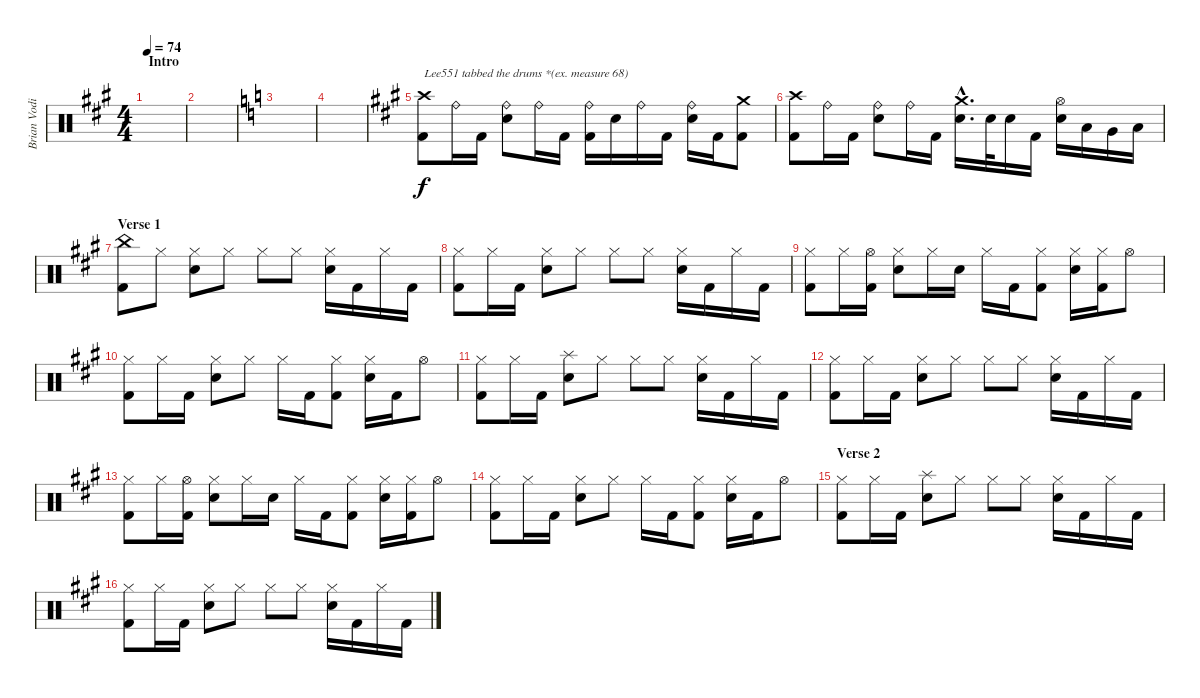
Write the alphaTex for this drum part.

\track ("Brian Vodinh" "Brian Vodi") {instrument percussion}
\staff {score}
\articulation defaults
\ts (4 4)
\section ("" "Intro")
\tempo 74
\clef neutral
\ks f#minor
|
|
\ks c
|
|
\ks f#minor
("Crash high (hit)" "Kick (hit) 2").8{txt "Lee551 tabbed the drums *(ex. measure 68)"} "Ride (bell)".16 "Kick (hit) 2".16 ("Ride (bell)" "Electric Snare (hit)").8 "Ride (bell)".16 "Kick (hit) 2".16 ("Ride (bell)" "Kick (hit) 2").16 "Electric Snare (hit)".16 "Ride (bell)".16 "Kick (hit) 2".16 ("Ride (bell)" "Electric Snare (hit)").16 "Kick (hit) 2".16 ("Crash medium (hit)" "Kick (hit) 2").8 |
("Crash high (hit)" "Kick (hit) 2").8 "Ride (bell)".16 "Kick (hit) 2".16 ("Ride (bell)" "Electric Snare (hit)").8 "Ride (bell)".16 "Kick (hit) 2".16 ("Crash medium (hit)"{hac} "Electric Snare (hit)"{hac}).16{d} "Electric Snare (hit)".32 "Electric Snare (hit)".16 "Kick (hit) 2".16 ("Hi-Hat (open)" "Electric Snare (hit)").16 "Low Tom (hit)".16 "Very Low Tom (hit)".16 "Low Floor Tom (hit)".16 |
\section ("" "Verse 1")
("China (hit)" "Kick (hit) 2").8 "Hi-Hat (closed)".8 ("Hi-Hat (closed)" "Electric Snare (hit)").8 "Hi-Hat (closed)".8 "Hi-Hat (closed)".8 "Hi-Hat (closed)".8 ("Hi-Hat (closed)" "Electric Snare (hit)").16 "Kick (hit) 2".16 "Hi-Hat (closed)".16 "Kick (hit) 2".16 |
("Hi-Hat (closed)" "Kick (hit) 2").8 "Hi-Hat (closed)".16 "Kick (hit) 2".16 ("Hi-Hat (closed)" "Electric Snare (hit)").8 "Hi-Hat (closed)".8 "Hi-Hat (closed)".8 "Hi-Hat (closed)".8 ("Hi-Hat (closed)" "Electric Snare (hit)").16 "Kick (hit) 2".16 "Hi-Hat (closed)".16 "Kick (hit) 2".16 |
("Hi-Hat (closed)" "Kick (hit) 2").8 "Hi-Hat (closed)".16 ("Hi-Hat (open)" "Kick (hit) 2").16 ("Hi-Hat (closed)" "Electric Snare (hit)").8 "Hi-Hat (closed)".16 "Electric Snare (hit)".16 "Hi-Hat (closed)".16 "Kick (hit) 2".16 ("Hi-Hat (closed)" "Kick (hit) 2").8 ("Hi-Hat (closed)" "Electric Snare (hit)").16 ("Hi-Hat (closed)" "Kick (hit) 2").16 "Hi-Hat (open)".8 |
("Hi-Hat (closed)" "Kick (hit) 2").8 "Hi-Hat (closed)".16 "Kick (hit) 2".16 ("Hi-Hat (closed)" "Electric Snare (hit)").8 "Hi-Hat (closed)".8 "Hi-Hat (closed)".16 "Kick (hit) 2".16 ("Hi-Hat (closed)" "Kick (hit) 2").8 ("Hi-Hat (closed)" "Electric Snare (hit)").16 "Kick (hit) 2".16 "Hi-Hat (open)".8 |
("Hi-Hat (closed)" "Kick (hit) 2").8 "Hi-Hat (closed)".16 "Kick (hit) 2".16 ("Splash (hit)" "Electric Snare (hit)").8 "Hi-Hat (closed)".8 "Hi-Hat (closed)".8 "Hi-Hat (closed)".8 ("Hi-Hat (closed)" "Electric Snare (hit)").16 "Kick (hit) 2".16 "Hi-Hat (closed)".16 "Kick (hit) 2".16 |
("Hi-Hat (closed)" "Kick (hit) 2").8 "Hi-Hat (closed)".16 "Kick (hit) 2".16 ("Hi-Hat (closed)" "Electric Snare (hit)").8 "Hi-Hat (closed)".8 "Hi-Hat (closed)".8 "Hi-Hat (closed)".8 ("Hi-Hat (closed)" "Electric Snare (hit)").16 "Kick (hit) 2".16 "Hi-Hat (closed)".16 "Kick (hit) 2".16 |
("Hi-Hat (closed)" "Kick (hit) 2").8 "Hi-Hat (closed)".16 ("Hi-Hat (open)" "Kick (hit) 2").16 ("Hi-Hat (closed)" "Electric Snare (hit)").8 "Hi-Hat (closed)".16 "Electric Snare (hit)".16 "Hi-Hat (closed)".16 "Kick (hit) 2".16 ("Hi-Hat (closed)" "Kick (hit) 2").8 ("Hi-Hat (closed)" "Electric Snare (hit)").16 ("Hi-Hat (closed)" "Kick (hit) 2").16 "Hi-Hat (open)".8 |
("Hi-Hat (closed)" "Kick (hit) 2").8 "Hi-Hat (closed)".16 "Kick (hit) 2".16 ("Hi-Hat (closed)" "Electric Snare (hit)").8 "Hi-Hat (closed)".8 "Hi-Hat (closed)".16 "Kick (hit) 2".16 ("Hi-Hat (closed)" "Kick (hit) 2").8 ("Hi-Hat (closed)" "Electric Snare (hit)").16 "Kick (hit) 2".16 "Hi-Hat (open)".8 |
\section ("" "Verse 2")
("Hi-Hat (closed)" "Kick (hit) 2").8 "Hi-Hat (closed)".16 "Kick (hit) 2".16 ("Splash (hit)" "Electric Snare (hit)").8 "Hi-Hat (closed)".8 "Hi-Hat (closed)".8 "Hi-Hat (closed)".8 ("Hi-Hat (closed)" "Electric Snare (hit)").16 "Kick (hit) 2".16 "Hi-Hat (closed)".16 "Kick (hit) 2".16 |
("Hi-Hat (closed)" "Kick (hit) 2").8 "Hi-Hat (closed)".16 "Kick (hit) 2".16 ("Hi-Hat (closed)" "Electric Snare (hit)").8 "Hi-Hat (closed)".8 "Hi-Hat (closed)".8 "Hi-Hat (closed)".8 ("Hi-Hat (closed)" "Electric Snare (hit)").16 "Kick (hit) 2".16 "Hi-Hat (closed)".16 "Kick (hit) 2".16
